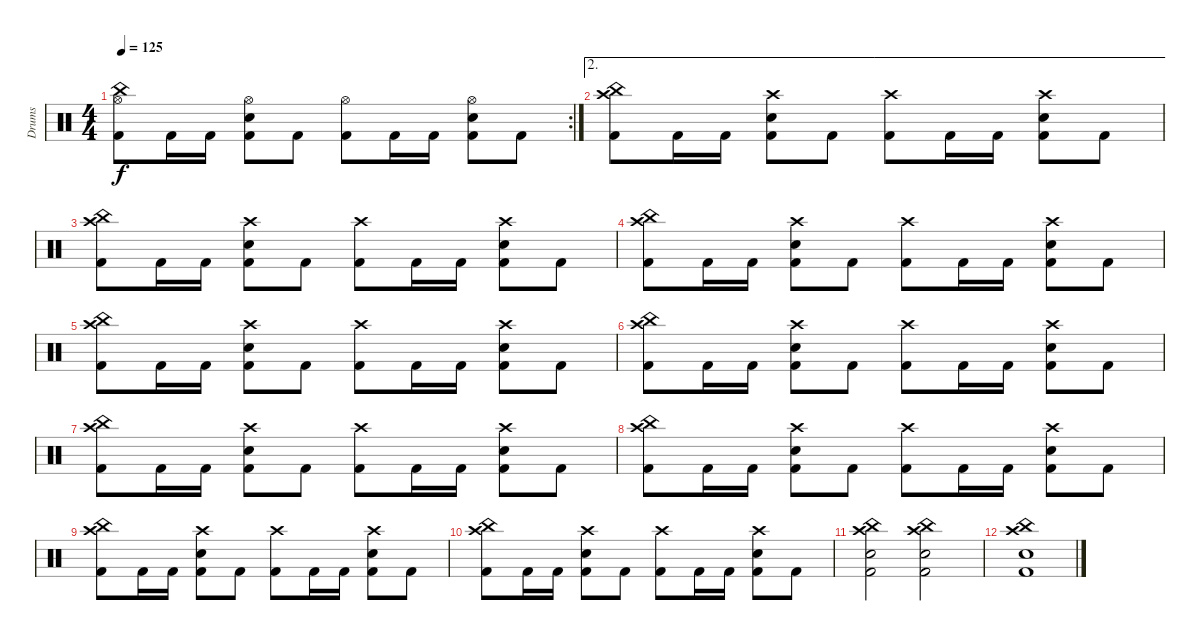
\track ("Drums" "Drums") {instrument percussion}
\staff {score}
\articulation defaults
\rc 2
\ts (4 4)
\tempo 125
\clef neutral
\ks c
("Hi-Hat (open)" "China (hit)" "Kick (hit) 2").8{dy f} "Kick (hit) 2".16 "Kick (hit) 2".16 ("Hi-Hat (open)" "Snare (hit) 2" "Kick (hit) 2").8 "Kick (hit) 2".8 ("Hi-Hat (open)" "Kick (hit) 2").8 "Kick (hit) 2".16 "Kick (hit) 2".16 ("Hi-Hat (open)" "Snare (hit) 2" "Kick (hit) 2").8 "Kick (hit) 2".8 |
\ae 2
("Crash high (hit)" "China (hit)" "Kick (hit) 2").8 "Kick (hit) 2".16 "Kick (hit) 2".16 ("Crash high (hit)" "Snare (hit) 2" "Kick (hit) 2").8 "Kick (hit) 2".8 ("Crash high (hit)" "Kick (hit) 2").8 "Kick (hit) 2".16 "Kick (hit) 2".16 ("Crash high (hit)" "Snare (hit) 2" "Kick (hit) 2").8 "Kick (hit) 2".8 |
("Crash high (hit)" "China (hit)" "Kick (hit) 2").8 "Kick (hit) 2".16 "Kick (hit) 2".16 ("Crash high (hit)" "Snare (hit) 2" "Kick (hit) 2").8 "Kick (hit) 2".8 ("Crash high (hit)" "Kick (hit) 2").8 "Kick (hit) 2".16 "Kick (hit) 2".16 ("Crash high (hit)" "Snare (hit) 2" "Kick (hit) 2").8 "Kick (hit) 2".8 |
("Crash high (hit)" "China (hit)" "Kick (hit) 2").8 "Kick (hit) 2".16 "Kick (hit) 2".16 ("Crash high (hit)" "Snare (hit) 2" "Kick (hit) 2").8 "Kick (hit) 2".8 ("Crash high (hit)" "Kick (hit) 2").8 "Kick (hit) 2".16 "Kick (hit) 2".16 ("Crash high (hit)" "Snare (hit) 2" "Kick (hit) 2").8 "Kick (hit) 2".8 |
("Crash high (hit)" "China (hit)" "Kick (hit) 2").8 "Kick (hit) 2".16 "Kick (hit) 2".16 ("Crash high (hit)" "Snare (hit) 2" "Kick (hit) 2").8 "Kick (hit) 2".8 ("Crash high (hit)" "Kick (hit) 2").8 "Kick (hit) 2".16 "Kick (hit) 2".16 ("Crash high (hit)" "Snare (hit) 2" "Kick (hit) 2").8 "Kick (hit) 2".8 |
("Crash high (hit)" "China (hit)" "Kick (hit) 2").8 "Kick (hit) 2".16 "Kick (hit) 2".16 ("Crash high (hit)" "Snare (hit) 2" "Kick (hit) 2").8 "Kick (hit) 2".8 ("Crash high (hit)" "Kick (hit) 2").8 "Kick (hit) 2".16 "Kick (hit) 2".16 ("Crash high (hit)" "Snare (hit) 2" "Kick (hit) 2").8 "Kick (hit) 2".8 |
("Crash high (hit)" "China (hit)" "Kick (hit) 2").8 "Kick (hit) 2".16 "Kick (hit) 2".16 ("Crash high (hit)" "Snare (hit) 2" "Kick (hit) 2").8 "Kick (hit) 2".8 ("Crash high (hit)" "Kick (hit) 2").8 "Kick (hit) 2".16 "Kick (hit) 2".16 ("Crash high (hit)" "Snare (hit) 2" "Kick (hit) 2").8 "Kick (hit) 2".8 |
("Crash high (hit)" "China (hit)" "Kick (hit) 2").8 "Kick (hit) 2".16 "Kick (hit) 2".16 ("Crash high (hit)" "Snare (hit) 2" "Kick (hit) 2").8 "Kick (hit) 2".8 ("Crash high (hit)" "Kick (hit) 2").8 "Kick (hit) 2".16 "Kick (hit) 2".16 ("Crash high (hit)" "Snare (hit) 2" "Kick (hit) 2").8 "Kick (hit) 2".8 |
("Crash high (hit)" "China (hit)" "Kick (hit) 2").8 "Kick (hit) 2".16 "Kick (hit) 2".16 ("Crash high (hit)" "Snare (hit) 2" "Kick (hit) 2").8 "Kick (hit) 2".8 ("Crash high (hit)" "Kick (hit) 2").8 "Kick (hit) 2".16 "Kick (hit) 2".16 ("Crash high (hit)" "Snare (hit) 2" "Kick (hit) 2").8 "Kick (hit) 2".8 |
("Crash high (hit)" "China (hit)" "Kick (hit) 2").8 "Kick (hit) 2".16 "Kick (hit) 2".16 ("Crash high (hit)" "Snare (hit) 2" "Kick (hit) 2").8 "Kick (hit) 2".8 ("Crash high (hit)" "Kick (hit) 2").8 "Kick (hit) 2".16 "Kick (hit) 2".16 ("Crash high (hit)" "Snare (hit) 2" "Kick (hit) 2").8 "Kick (hit) 2".8 |
("Crash high (hit)" "China (hit)" "Kick (hit) 2" "Snare (hit) 2").2 ("Crash high (hit)" "China (hit)" "Kick (hit) 2" "Snare (hit) 2").2 |
("Crash high (hit)" "China (hit)" "Kick (hit) 2" "Snare (hit) 2").1
